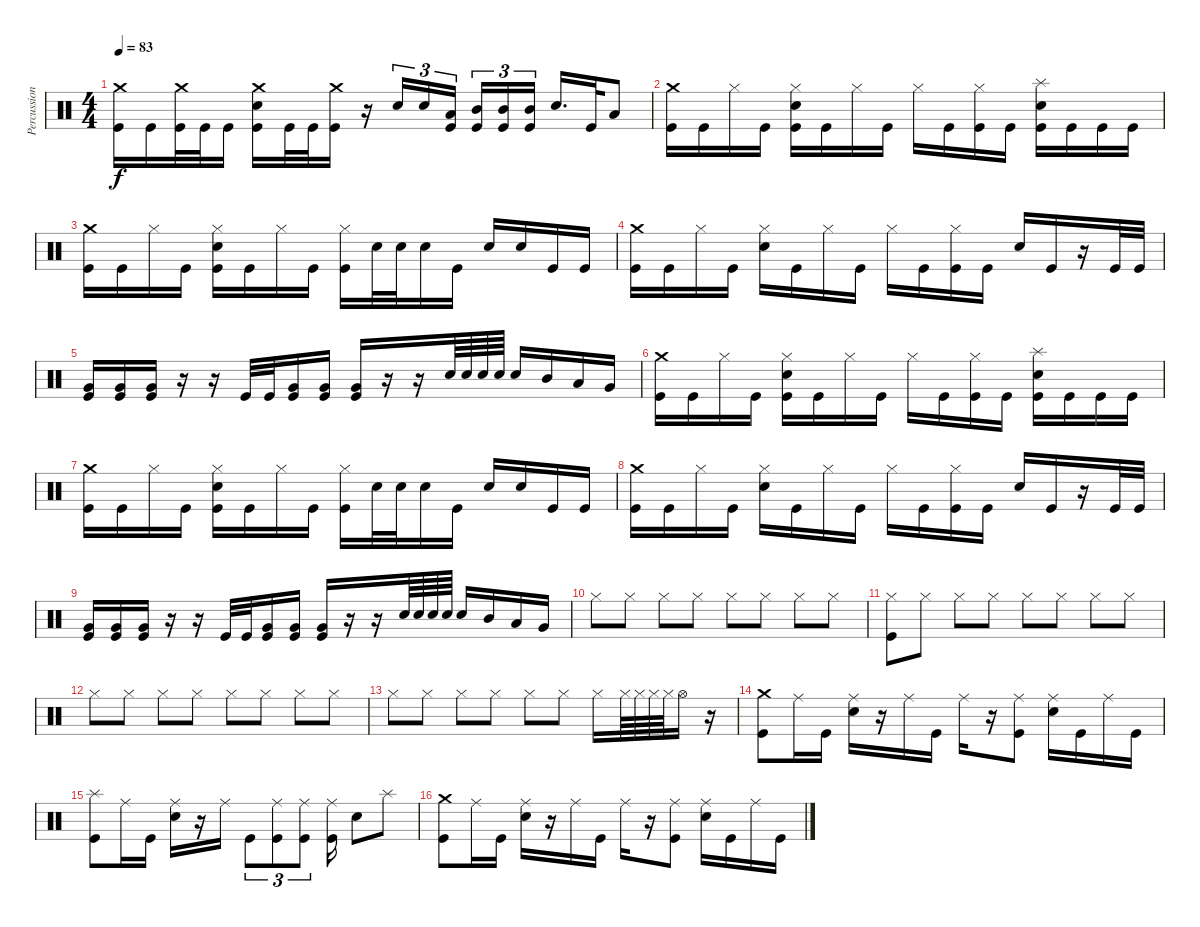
\track ("Percussion" "Percussion") {instrument percussion}
\staff {score}
\articulation defaults
\ts (4 4)
\tempo 83
\clef neutral
\ks c
("Crash medium (hit)" "Kick (hit)").16{dy f} "Kick (hit)".16 ("Crash medium (hit)" "Kick (hit)").32 "Kick (hit)".32 "Kick (hit)".16 ("Crash medium (hit)" "Snare (hit) 2" "Kick (hit)").16 "Kick (hit)".32 "Kick (hit)".32 ("Crash medium (hit)" "Kick (hit)").16 r.16 "Snare (hit) 2".16{tu (3 2)} "Snare (hit) 2".16{tu (3 2)} ("Low Tom (hit)" "Kick (hit)").16{tu (3 2) beam splitsecondary} ("Mid Tom (hit)" "Kick (hit)").16{tu (3 2)} ("Mid Tom (hit)" "Kick (hit)").16{tu (3 2)} ("Mid Tom (hit)" "Kick (hit)").16{tu (3 2)} "Snare (hit) 2".16{d} "Kick (hit)".32 "Low Floor Tom (hit)".8 |
("Crash medium (hit)" "Kick (hit)").16 "Kick (hit)".16 "Hi-Hat (closed)".16 "Kick (hit)".16 ("Hi-Hat (closed)" "Snare (hit) 2" "Kick (hit)").16 "Kick (hit)".16 "Hi-Hat (closed)".16 "Kick (hit)".16 "Hi-Hat (closed)".16 "Kick (hit)".16 ("Hi-Hat (closed)" "Kick (hit)").16 "Kick (hit)".16 ("Splash (hit)" "Snare (hit) 2" "Kick (hit)").16 "Kick (hit)".16 "Kick (hit)".16 "Kick (hit)".16 |
("Crash medium (hit)" "Kick (hit)").16 "Kick (hit)".16 "Hi-Hat (closed)".16 "Kick (hit)".16 ("Hi-Hat (closed)" "Snare (hit) 2" "Kick (hit)").16 "Kick (hit)".16 "Hi-Hat (closed)".16 "Kick (hit)".16 ("Hi-Hat (closed)" "Kick (hit)").16 "Snare (hit) 2".32 "Snare (hit) 2".32 "Snare (hit) 2".16 "Kick (hit)".16 "Snare (hit) 2".16 "Snare (hit) 2".16 "Kick (hit)".16 "Kick (hit)".16 |
("Crash medium (hit)" "Kick (hit)").16 "Kick (hit)".16 "Hi-Hat (closed)".16 "Kick (hit)".16 ("Hi-Hat (closed)" "Snare (hit) 2").16 "Kick (hit)".16 "Hi-Hat (closed)".16 "Kick (hit)".16 "Hi-Hat (closed)".16 "Kick (hit)".16 ("Hi-Hat (closed)" "Kick (hit)").16 "Kick (hit)".16 "Snare (hit) 2".16 "Kick (hit)".16 r.16 "Kick (hit)".32 "Kick (hit)".32 |
("Very Low Tom (hit)" "Kick (hit)").16 ("Very Low Tom (hit)" "Kick (hit)").16 ("Very Low Tom (hit)" "Kick (hit)").16 r.16 r.16 "Kick (hit)".32 "Kick (hit)".32 ("Very Low Tom (hit)" "Kick (hit)").16 ("Very Low Tom (hit)" "Kick (hit)").16 ("Very Low Tom (hit)" "Kick (hit)").16 r.16 r.16 "Snare (hit) 2".64 "Snare (hit) 2".64 "Snare (hit) 2".64 "Snare (hit) 2".64 "Snare (hit) 2".16 "Mid Tom (hit)".16 "Low Tom (hit)".16 "Very Low Tom (hit)".16 |
("Crash medium (hit)" "Kick (hit)").16 "Kick (hit)".16 "Hi-Hat (closed)".16 "Kick (hit)".16 ("Hi-Hat (closed)" "Snare (hit) 2" "Kick (hit)").16 "Kick (hit)".16 "Hi-Hat (closed)".16 "Kick (hit)".16 "Hi-Hat (closed)".16 "Kick (hit)".16 ("Hi-Hat (closed)" "Kick (hit)").16 "Kick (hit)".16 ("Splash (hit)" "Snare (hit) 2" "Kick (hit)").16 "Kick (hit)".16 "Kick (hit)".16 "Kick (hit)".16 |
("Crash medium (hit)" "Kick (hit)").16 "Kick (hit)".16 "Hi-Hat (closed)".16 "Kick (hit)".16 ("Hi-Hat (closed)" "Snare (hit) 2" "Kick (hit)").16 "Kick (hit)".16 "Hi-Hat (closed)".16 "Kick (hit)".16 ("Hi-Hat (closed)" "Kick (hit)").16 "Snare (hit) 2".32 "Snare (hit) 2".32 "Snare (hit) 2".16 "Kick (hit)".16 "Snare (hit) 2".16 "Snare (hit) 2".16 "Kick (hit)".16 "Kick (hit)".16 |
("Crash medium (hit)" "Kick (hit)").16 "Kick (hit)".16 "Hi-Hat (closed)".16 "Kick (hit)".16 ("Hi-Hat (closed)" "Snare (hit) 2").16 "Kick (hit)".16 "Hi-Hat (closed)".16 "Kick (hit)".16 "Hi-Hat (closed)".16 "Kick (hit)".16 ("Hi-Hat (closed)" "Kick (hit)").16 "Kick (hit)".16 "Snare (hit) 2".16 "Kick (hit)".16 r.16 "Kick (hit)".32 "Kick (hit)".32 |
("Very Low Tom (hit)" "Kick (hit)").16 ("Very Low Tom (hit)" "Kick (hit)").16 ("Very Low Tom (hit)" "Kick (hit)").16 r.16 r.16 "Kick (hit)".32 "Kick (hit)".32 ("Very Low Tom (hit)" "Kick (hit)").16 ("Very Low Tom (hit)" "Kick (hit)").16 ("Very Low Tom (hit)" "Kick (hit)").16 r.16 r.16 "Snare (hit) 2".64 "Snare (hit) 2".64 "Snare (hit) 2".64 "Snare (hit) 2".64 "Snare (hit) 2".16 "Mid Tom (hit)".16 "Low Tom (hit)".16 "Very Low Tom (hit)".16 |
"Hi-Hat (closed)".8 "Hi-Hat (closed)".8 "Hi-Hat (closed)".8 "Hi-Hat (closed)".8 "Hi-Hat (closed)".8 "Hi-Hat (closed)".8 "Hi-Hat (closed)".8 "Hi-Hat (closed)".8 |
("Hi-Hat (closed)" "Kick (hit)").8 "Hi-Hat (closed)".8 "Hi-Hat (closed)".8 "Hi-Hat (closed)".8 "Hi-Hat (closed)".8 "Hi-Hat (closed)".8 "Hi-Hat (closed)".8 "Hi-Hat (closed)".8 |
"Hi-Hat (closed)".8 "Hi-Hat (closed)".8 "Hi-Hat (closed)".8 "Hi-Hat (closed)".8 "Hi-Hat (closed)".8 "Hi-Hat (closed)".8 "Hi-Hat (closed)".8 "Hi-Hat (closed)".8 |
"Hi-Hat (closed)".8 "Hi-Hat (closed)".8 "Hi-Hat (closed)".8 "Hi-Hat (closed)".8 "Hi-Hat (closed)".8 "Hi-Hat (closed)".8 "Hi-Hat (closed)".16 "Hi-Hat (closed)".64 "Hi-Hat (closed)".64 "Hi-Hat (closed)".64 "Hi-Hat (closed)".64 "Hi-Hat (open)".16 r.16 |
("Crash medium (hit)" "Kick (hit)").8 "Ride (middle)".16 "Kick (hit)".16 ("Ride (middle)" "Snare (hit) 2").16 r.16 "Ride (middle)".16 "Kick (hit)".16 "Ride (middle)".16 r.16 ("Ride (middle)" "Kick (hit)").8 ("Ride (middle)" "Snare (hit) 2").16 "Kick (hit)".16 "Ride (middle)".16 "Kick (hit)".16 |
("Splash (hit)" "Kick (hit)").8 "Ride (middle)".16 "Kick (hit)".16 ("Ride (middle)" "Snare (hit) 2").16 r.16 "Ride (middle)".16 "Kick (hit)".8{tu (3 2)} ("Ride (middle)" "Kick (hit)").8{tu (3 2)} ("Ride (middle)" "Kick (hit)").8{tu (3 2)} ("Ride (middle)" "Kick (hit)").16 "Snare (hit) 2".8 "Splash (hit)".8 |
("Crash medium (hit)" "Kick (hit)").8 "Ride (middle)".16 "Kick (hit)".16 ("Ride (middle)" "Snare (hit) 2").16 r.16 "Ride (middle)".16 "Kick (hit)".16 "Ride (middle)".16 r.16 ("Ride (middle)" "Kick (hit)").8 ("Ride (middle)" "Snare (hit) 2").16 "Kick (hit)".16 "Ride (middle)".16 "Kick (hit)".16
